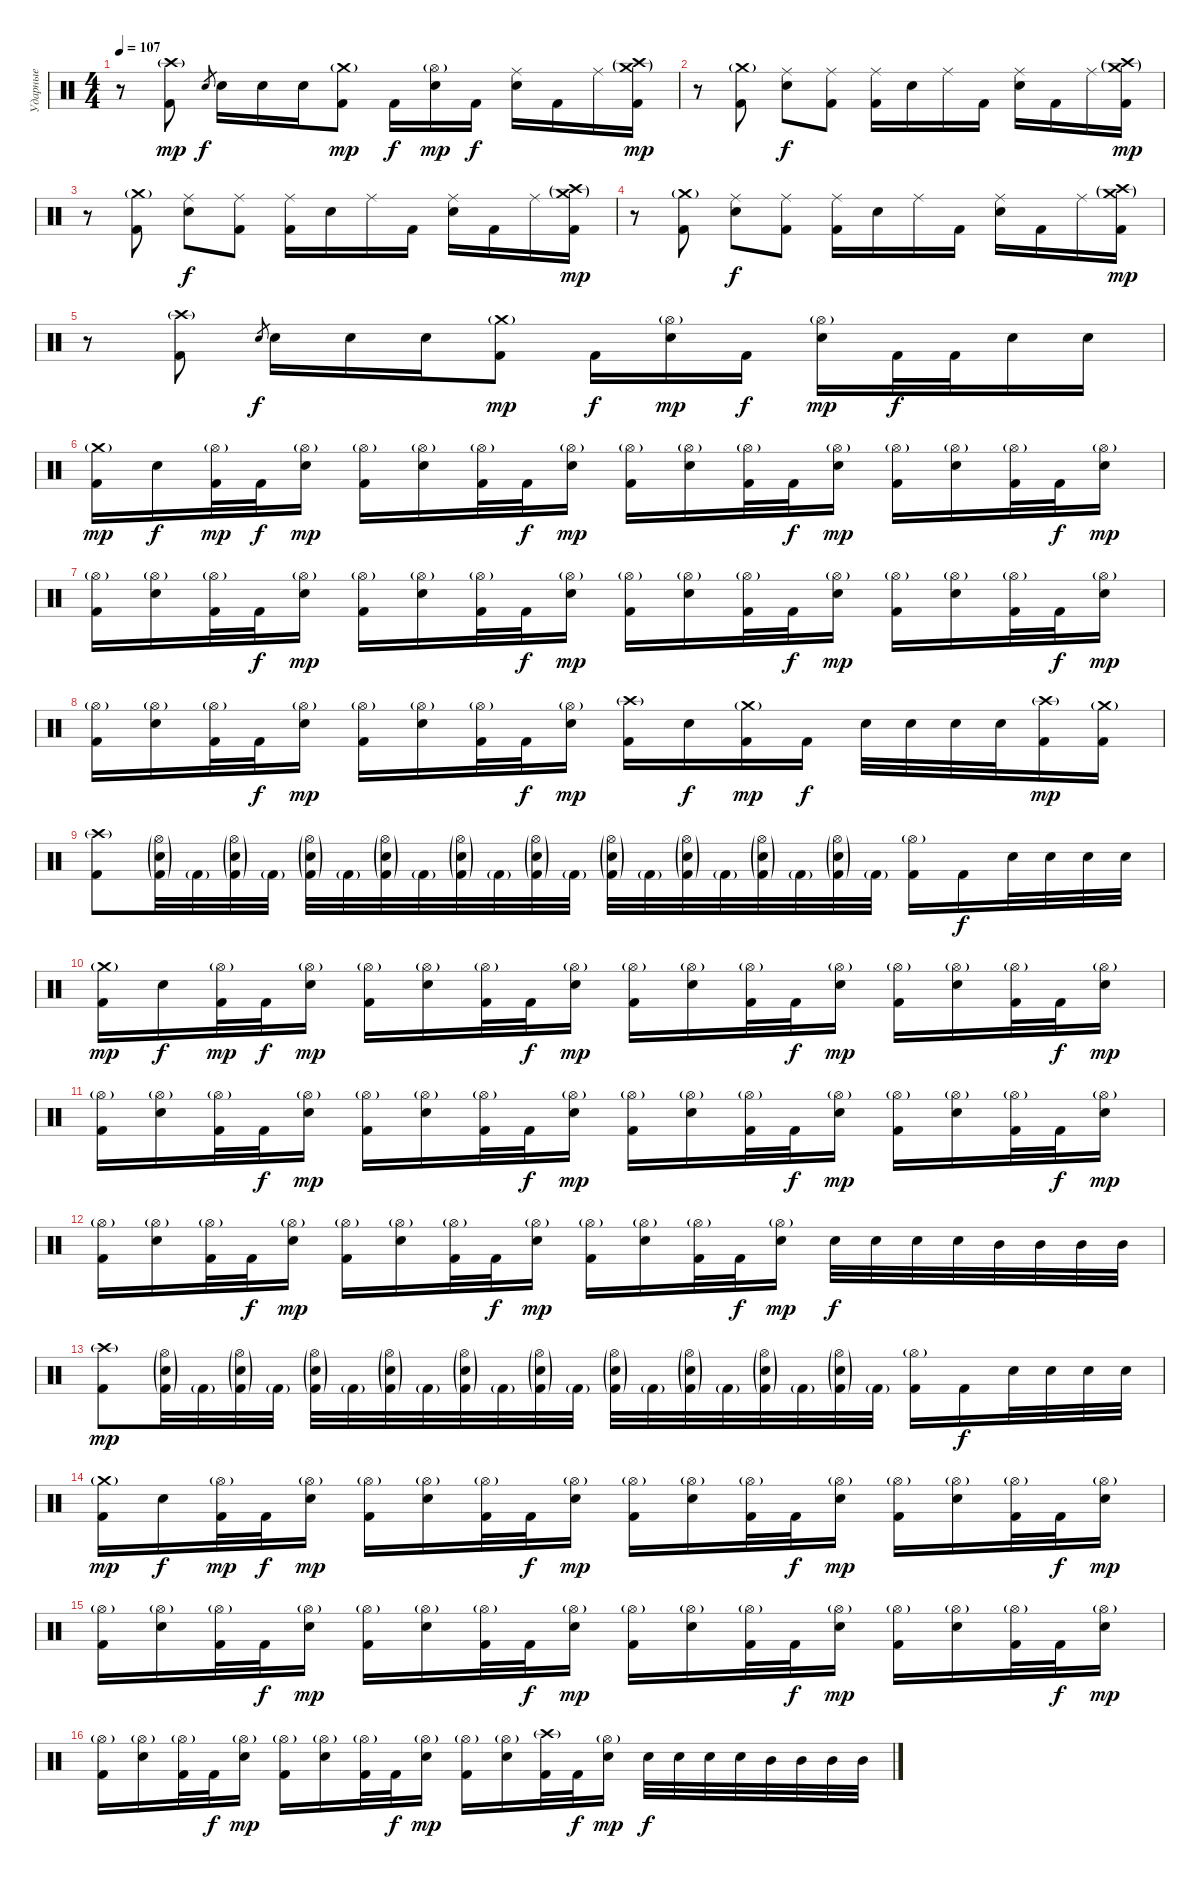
\track ("Ударные" "Ударные") {instrument percussion}
\staff {score}
\articulation defaults
\ts (4 4)
\tempo 107
\clef neutral
\ks c
r.8{dy mp} ("Crash high (hit)"{g} "Kick (hit) 2").8 "Electric Snare (hit)".8{gr dy f} "Electric Snare (hit)".16 "Electric Snare (hit)".16 "Electric Snare (hit)".16 ("Crash medium (hit)"{g} "Kick (hit) 2").8{dy mp} "Kick (hit) 2".16{dy f} ("Hi-Hat (open)"{g} "Electric Snare (hit)").16{dy mp} "Kick (hit) 2".16{dy f} ("Ride (middle)" "Electric Snare (hit)").16 "Kick (hit) 2".16 "Ride (middle)".16 ("Crash medium (hit)"{g} "Crash high (hit)"{g} "Kick (hit) 2").16{dy mp} |
r.8 ("Crash medium (hit)"{g} "Kick (hit) 2").8 ("Ride (middle)" "Electric Snare (hit)").8{dy f} ("Ride (middle)" "Kick (hit) 2").8 ("Ride (middle)" "Kick (hit) 2").16 "Electric Snare (hit)".16 "Ride (middle)".16 "Kick (hit) 2".16 ("Ride (middle)" "Electric Snare (hit)").16 "Kick (hit) 2".16 "Ride (middle)".16 ("Crash high (hit)"{g} "Crash medium (hit)"{g} "Kick (hit) 2").16{dy mp} |
r.8 ("Crash medium (hit)"{g} "Kick (hit) 2").8 ("Ride (middle)" "Electric Snare (hit)").8{dy f} ("Ride (middle)" "Kick (hit) 2").8 ("Ride (middle)" "Kick (hit) 2").16 "Electric Snare (hit)".16 "Ride (middle)".16 "Kick (hit) 2".16 ("Ride (middle)" "Electric Snare (hit)").16 "Kick (hit) 2".16 "Ride (middle)".16 ("Crash high (hit)"{g} "Crash medium (hit)"{g} "Kick (hit) 2").16{dy mp} |
r.8 ("Crash medium (hit)"{g} "Kick (hit) 2").8 ("Ride (middle)" "Electric Snare (hit)").8{dy f} ("Ride (middle)" "Kick (hit) 2").8 ("Ride (middle)" "Kick (hit) 2").16 "Electric Snare (hit)".16 "Ride (middle)".16 "Kick (hit) 2".16 ("Ride (middle)" "Electric Snare (hit)").16 "Kick (hit) 2".16 "Ride (middle)".16 ("Crash high (hit)"{g} "Crash medium (hit)"{g} "Kick (hit) 2").16{dy mp} |
r.8 ("Crash high (hit)"{g} "Kick (hit) 2").8 "Electric Snare (hit)".8{gr dy f} "Electric Snare (hit)".16 "Electric Snare (hit)".16 "Electric Snare (hit)".16 ("Crash medium (hit)"{g} "Kick (hit) 2").8{dy mp} "Kick (hit) 2".16{dy f} ("Hi-Hat (open)"{g} "Electric Snare (hit)").16{dy mp} "Kick (hit) 2".16{dy f} ("Hi-Hat (open)"{g} "Electric Snare (hit)").16{dy mp} "Kick (hit) 2".32{dy f} "Kick (hit) 2".32 "Electric Snare (hit)".16 "Electric Snare (hit)".16 |
("Crash medium (hit)"{g} "Kick (hit) 2").16{dy mp} "Electric Snare (hit)".16{dy f} ("Hi-Hat (open)"{g} "Kick (hit) 2").32{dy mp} "Kick (hit) 2".32{dy f} ("Hi-Hat (open)"{g} "Electric Snare (hit)").16{dy mp} ("Hi-Hat (open)"{g} "Kick (hit) 2").16 ("Hi-Hat (open)"{g} "Electric Snare (hit)").16 ("Hi-Hat (open)"{g} "Kick (hit) 2").32 "Kick (hit) 2".32{dy f} ("Hi-Hat (open)"{g} "Electric Snare (hit)").16{dy mp} ("Hi-Hat (open)"{g} "Kick (hit) 2").16 ("Hi-Hat (open)"{g} "Electric Snare (hit)").16 ("Hi-Hat (open)"{g} "Kick (hit) 2").32 "Kick (hit) 2".32{dy f} ("Hi-Hat (open)"{g} "Electric Snare (hit)").16{dy mp} ("Hi-Hat (open)"{g} "Kick (hit) 2").16 ("Hi-Hat (open)"{g} "Electric Snare (hit)").16 ("Hi-Hat (open)"{g} "Kick (hit) 2").32 "Kick (hit) 2".32{dy f} ("Hi-Hat (open)"{g} "Electric Snare (hit)").16{dy mp} |
("Hi-Hat (open)"{g} "Kick (hit) 2").16 ("Hi-Hat (open)"{g} "Electric Snare (hit)").16 ("Hi-Hat (open)"{g} "Kick (hit) 2").32 "Kick (hit) 2".32{dy f} ("Hi-Hat (open)"{g} "Electric Snare (hit)").16{dy mp} ("Hi-Hat (open)"{g} "Kick (hit) 2").16 ("Hi-Hat (open)"{g} "Electric Snare (hit)").16 ("Hi-Hat (open)"{g} "Kick (hit) 2").32 "Kick (hit) 2".32{dy f} ("Hi-Hat (open)"{g} "Electric Snare (hit)").16{dy mp} ("Hi-Hat (open)"{g} "Kick (hit) 2").16 ("Hi-Hat (open)"{g} "Electric Snare (hit)").16 ("Hi-Hat (open)"{g} "Kick (hit) 2").32 "Kick (hit) 2".32{dy f} ("Hi-Hat (open)"{g} "Electric Snare (hit)").16{dy mp} ("Hi-Hat (open)"{g} "Kick (hit) 2").16 ("Hi-Hat (open)"{g} "Electric Snare (hit)").16 ("Hi-Hat (open)"{g} "Kick (hit) 2").32 "Kick (hit) 2".32{dy f} ("Hi-Hat (open)"{g} "Electric Snare (hit)").16{dy mp} |
("Hi-Hat (open)"{g} "Kick (hit) 2").16 ("Hi-Hat (open)"{g} "Electric Snare (hit)").16 ("Hi-Hat (open)"{g} "Kick (hit) 2").32 "Kick (hit) 2".32{dy f} ("Hi-Hat (open)"{g} "Electric Snare (hit)").16{dy mp} ("Hi-Hat (open)"{g} "Kick (hit) 2").16 ("Hi-Hat (open)"{g} "Electric Snare (hit)").16 ("Hi-Hat (open)"{g} "Kick (hit) 2").32 "Kick (hit) 2".32{dy f} ("Hi-Hat (open)"{g} "Electric Snare (hit)").16{dy mp} ("Crash high (hit)"{g} "Kick (hit) 2").16 "Electric Snare (hit)".16{dy f} ("Crash medium (hit)"{g} "Kick (hit) 2").16{dy mp} "Kick (hit) 2".16{dy f} "Electric Snare (hit)".32 "Electric Snare (hit)".32 "Electric Snare (hit)".32 "Electric Snare (hit)".32 ("Crash high (hit)"{g} "Kick (hit) 2").16{dy mp} ("Crash medium (hit)"{g} "Kick (hit) 2").16 |
("Crash high (hit)"{g} "Kick (hit) 2").8 ("Hi-Hat (open)"{g} "Electric Snare (hit)"{g} "Kick (hit) 2"{g}).32 "Kick (hit) 2"{g}.32 ("Hi-Hat (open)"{g} "Electric Snare (hit)"{g} "Kick (hit) 2"{g}).32 "Kick (hit) 2"{g}.32 ("Hi-Hat (open)"{g} "Electric Snare (hit)"{g} "Kick (hit) 2"{g}).32 "Kick (hit) 2"{g}.32 ("Hi-Hat (open)"{g} "Electric Snare (hit)"{g} "Kick (hit) 2"{g}).32 "Kick (hit) 2"{g}.32 ("Hi-Hat (open)"{g} "Electric Snare (hit)"{g} "Kick (hit) 2"{g}).32 "Kick (hit) 2"{g}.32 ("Hi-Hat (open)"{g} "Electric Snare (hit)"{g} "Kick (hit) 2"{g}).32 "Kick (hit) 2"{g}.32 ("Hi-Hat (open)"{g} "Electric Snare (hit)"{g} "Kick (hit) 2"{g}).32 "Kick (hit) 2"{g}.32 ("Hi-Hat (open)"{g} "Electric Snare (hit)"{g} "Kick (hit) 2"{g}).32 "Kick (hit) 2"{g}.32 ("Hi-Hat (open)"{g} "Electric Snare (hit)"{g} "Kick (hit) 2"{g}).32 "Kick (hit) 2"{g}.32 ("Hi-Hat (open)"{g} "Electric Snare (hit)"{g} "Kick (hit) 2"{g}).32 "Kick (hit) 2"{g}.32 ("Hi-Hat (open)"{g} "Kick (hit) 2").16 "Kick (hit) 2".16{dy f} "Electric Snare (hit)".32 "Electric Snare (hit)".32 "Electric Snare (hit)".32 "Electric Snare (hit)".32 |
("Crash medium (hit)"{g} "Kick (hit) 2").16{dy mp} "Electric Snare (hit)".16{dy f} ("Hi-Hat (open)"{g} "Kick (hit) 2").32{dy mp} "Kick (hit) 2".32{dy f} ("Hi-Hat (open)"{g} "Electric Snare (hit)").16{dy mp} ("Hi-Hat (open)"{g} "Kick (hit) 2").16 ("Hi-Hat (open)"{g} "Electric Snare (hit)").16 ("Hi-Hat (open)"{g} "Kick (hit) 2").32 "Kick (hit) 2".32{dy f} ("Hi-Hat (open)"{g} "Electric Snare (hit)").16{dy mp} ("Hi-Hat (open)"{g} "Kick (hit) 2").16 ("Hi-Hat (open)"{g} "Electric Snare (hit)").16 ("Hi-Hat (open)"{g} "Kick (hit) 2").32 "Kick (hit) 2".32{dy f} ("Hi-Hat (open)"{g} "Electric Snare (hit)").16{dy mp} ("Hi-Hat (open)"{g} "Kick (hit) 2").16 ("Hi-Hat (open)"{g} "Electric Snare (hit)").16 ("Hi-Hat (open)"{g} "Kick (hit) 2").32 "Kick (hit) 2".32{dy f} ("Hi-Hat (open)"{g} "Electric Snare (hit)").16{dy mp} |
("Hi-Hat (open)"{g} "Kick (hit) 2").16 ("Hi-Hat (open)"{g} "Electric Snare (hit)").16 ("Hi-Hat (open)"{g} "Kick (hit) 2").32 "Kick (hit) 2".32{dy f} ("Hi-Hat (open)"{g} "Electric Snare (hit)").16{dy mp} ("Hi-Hat (open)"{g} "Kick (hit) 2").16 ("Hi-Hat (open)"{g} "Electric Snare (hit)").16 ("Hi-Hat (open)"{g} "Kick (hit) 2").32 "Kick (hit) 2".32{dy f} ("Hi-Hat (open)"{g} "Electric Snare (hit)").16{dy mp} ("Hi-Hat (open)"{g} "Kick (hit) 2").16 ("Hi-Hat (open)"{g} "Electric Snare (hit)").16 ("Hi-Hat (open)"{g} "Kick (hit) 2").32 "Kick (hit) 2".32{dy f} ("Hi-Hat (open)"{g} "Electric Snare (hit)").16{dy mp} ("Hi-Hat (open)"{g} "Kick (hit) 2").16 ("Hi-Hat (open)"{g} "Electric Snare (hit)").16 ("Hi-Hat (open)"{g} "Kick (hit) 2").32 "Kick (hit) 2".32{dy f} ("Hi-Hat (open)"{g} "Electric Snare (hit)").16{dy mp} |
("Hi-Hat (open)"{g} "Kick (hit) 2").16 ("Hi-Hat (open)"{g} "Electric Snare (hit)").16 ("Hi-Hat (open)"{g} "Kick (hit) 2").32 "Kick (hit) 2".32{dy f} ("Hi-Hat (open)"{g} "Electric Snare (hit)").16{dy mp} ("Hi-Hat (open)"{g} "Kick (hit) 2").16 ("Hi-Hat (open)"{g} "Electric Snare (hit)").16 ("Hi-Hat (open)"{g} "Kick (hit) 2").32 "Kick (hit) 2".32{dy f} ("Hi-Hat (open)"{g} "Electric Snare (hit)").16{dy mp} ("Hi-Hat (open)"{g} "Kick (hit) 2").16 ("Hi-Hat (open)"{g} "Electric Snare (hit)").16 ("Hi-Hat (open)"{g} "Kick (hit) 2").32 "Kick (hit) 2".32{dy f} ("Hi-Hat (open)"{g} "Electric Snare (hit)").16{dy mp} "Electric Snare (hit)".32{dy f} "Electric Snare (hit)".32 "Electric Snare (hit)".32 "Electric Snare (hit)".32 "Mid Tom (hit)".32 "Mid Tom (hit)".32 "Mid Tom (hit)".32 "Mid Tom (hit)".32 |
("Crash high (hit)"{g} "Kick (hit) 2").8{dy mp} ("Hi-Hat (open)"{g} "Electric Snare (hit)"{g} "Kick (hit) 2"{g}).32 "Kick (hit) 2"{g}.32 ("Hi-Hat (open)"{g} "Electric Snare (hit)"{g} "Kick (hit) 2"{g}).32 "Kick (hit) 2"{g}.32 ("Hi-Hat (open)"{g} "Electric Snare (hit)"{g} "Kick (hit) 2"{g}).32 "Kick (hit) 2"{g}.32 ("Hi-Hat (open)"{g} "Electric Snare (hit)"{g} "Kick (hit) 2"{g}).32 "Kick (hit) 2"{g}.32 ("Hi-Hat (open)"{g} "Electric Snare (hit)"{g} "Kick (hit) 2"{g}).32 "Kick (hit) 2"{g}.32 ("Hi-Hat (open)"{g} "Electric Snare (hit)"{g} "Kick (hit) 2"{g}).32 "Kick (hit) 2"{g}.32 ("Hi-Hat (open)"{g} "Electric Snare (hit)"{g} "Kick (hit) 2"{g}).32 "Kick (hit) 2"{g}.32 ("Hi-Hat (open)"{g} "Electric Snare (hit)"{g} "Kick (hit) 2"{g}).32 "Kick (hit) 2"{g}.32 ("Hi-Hat (open)"{g} "Electric Snare (hit)"{g} "Kick (hit) 2"{g}).32 "Kick (hit) 2"{g}.32 ("Hi-Hat (open)"{g} "Electric Snare (hit)"{g} "Kick (hit) 2"{g}).32 "Kick (hit) 2"{g}.32 ("Hi-Hat (open)"{g} "Kick (hit) 2").16 "Kick (hit) 2".16{dy f} "Electric Snare (hit)".32 "Electric Snare (hit)".32 "Electric Snare (hit)".32 "Electric Snare (hit)".32 |
("Crash medium (hit)"{g} "Kick (hit) 2").16{dy mp} "Electric Snare (hit)".16{dy f} ("Hi-Hat (open)"{g} "Kick (hit) 2").32{dy mp} "Kick (hit) 2".32{dy f} ("Hi-Hat (open)"{g} "Electric Snare (hit)").16{dy mp} ("Hi-Hat (open)"{g} "Kick (hit) 2").16 ("Hi-Hat (open)"{g} "Electric Snare (hit)").16 ("Hi-Hat (open)"{g} "Kick (hit) 2").32 "Kick (hit) 2".32{dy f} ("Hi-Hat (open)"{g} "Electric Snare (hit)").16{dy mp} ("Hi-Hat (open)"{g} "Kick (hit) 2").16 ("Hi-Hat (open)"{g} "Electric Snare (hit)").16 ("Hi-Hat (open)"{g} "Kick (hit) 2").32 "Kick (hit) 2".32{dy f} ("Hi-Hat (open)"{g} "Electric Snare (hit)").16{dy mp} ("Hi-Hat (open)"{g} "Kick (hit) 2").16 ("Hi-Hat (open)"{g} "Electric Snare (hit)").16 ("Hi-Hat (open)"{g} "Kick (hit) 2").32 "Kick (hit) 2".32{dy f} ("Hi-Hat (open)"{g} "Electric Snare (hit)").16{dy mp} |
("Hi-Hat (open)"{g} "Kick (hit) 2").16 ("Hi-Hat (open)"{g} "Electric Snare (hit)").16 ("Hi-Hat (open)"{g} "Kick (hit) 2").32 "Kick (hit) 2".32{dy f} ("Hi-Hat (open)"{g} "Electric Snare (hit)").16{dy mp} ("Hi-Hat (open)"{g} "Kick (hit) 2").16 ("Hi-Hat (open)"{g} "Electric Snare (hit)").16 ("Hi-Hat (open)"{g} "Kick (hit) 2").32 "Kick (hit) 2".32{dy f} ("Hi-Hat (open)"{g} "Electric Snare (hit)").16{dy mp} ("Hi-Hat (open)"{g} "Kick (hit) 2").16 ("Hi-Hat (open)"{g} "Electric Snare (hit)").16 ("Hi-Hat (open)"{g} "Kick (hit) 2").32 "Kick (hit) 2".32{dy f} ("Hi-Hat (open)"{g} "Electric Snare (hit)").16{dy mp} ("Hi-Hat (open)"{g} "Kick (hit) 2").16 ("Hi-Hat (open)"{g} "Electric Snare (hit)").16 ("Hi-Hat (open)"{g} "Kick (hit) 2").32 "Kick (hit) 2".32{dy f} ("Hi-Hat (open)"{g} "Electric Snare (hit)").16{dy mp} |
("Hi-Hat (open)"{g} "Kick (hit) 2").16 ("Hi-Hat (open)"{g} "Electric Snare (hit)").16 ("Hi-Hat (open)"{g} "Kick (hit) 2").32 "Kick (hit) 2".32{dy f} ("Hi-Hat (open)"{g} "Electric Snare (hit)").16{dy mp} ("Hi-Hat (open)"{g} "Kick (hit) 2").16 ("Hi-Hat (open)"{g} "Electric Snare (hit)").16 ("Hi-Hat (open)"{g} "Kick (hit) 2").32 "Kick (hit) 2".32{dy f} ("Hi-Hat (open)"{g} "Electric Snare (hit)").16{dy mp} ("Hi-Hat (open)"{g} "Kick (hit) 2").16 ("Hi-Hat (open)"{g} "Electric Snare (hit)").16 ("Crash high (hit)"{g} "Kick (hit) 2").32 "Kick (hit) 2".32{dy f} ("Hi-Hat (open)"{g} "Electric Snare (hit)").16{dy mp} "Electric Snare (hit)".32{dy f} "Electric Snare (hit)".32 "Electric Snare (hit)".32 "Electric Snare (hit)".32 "Mid Tom (hit)".32 "Mid Tom (hit)".32 "Mid Tom (hit)".32 "Mid Tom (hit)".32
